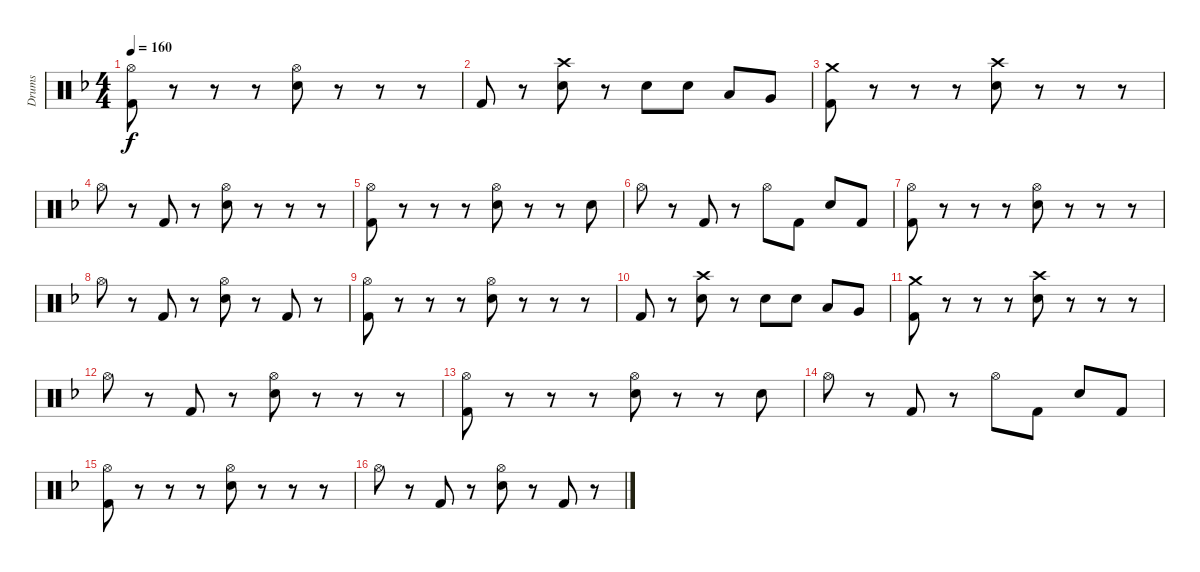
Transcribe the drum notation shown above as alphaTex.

\track ("Drums" "Drums") {instrument percussion}
\staff {score}
\articulation defaults
\ts (4 4)
\tempo 160
\clef neutral
\ks dminor
("Hi-Hat (open)" "Kick (hit) 2").8{dy f} r.8 r.8 r.8 ("Hi-Hat (open)" "Electric Snare (hit)").8 r.8 r.8 r.8 |
"Kick (hit) 2".8 r.8 ("Crash high (hit)" "Electric Snare (hit)").8 r.8 "Electric Snare (hit)".8 "Electric Snare (hit)".8 "Low Tom (hit)".8 "Very Low Tom (hit)".8 |
("Crash medium (hit)" "Kick (hit) 2").8 r.8 r.8 r.8 ("Crash high (hit)" "Electric Snare (hit)").8 r.8 r.8 r.8 |
"Hi-Hat (open)".8 r.8 "Kick (hit) 2".8 r.8 ("Hi-Hat (open)" "Electric Snare (hit)").8 r.8 r.8 r.8 |
("Hi-Hat (open)" "Kick (hit) 2").8 r.8 r.8 r.8 ("Hi-Hat (open)" "Electric Snare (hit)").8 r.8 r.8 "Electric Snare (hit)".8 |
"Hi-Hat (open)".8 r.8 "Kick (hit) 2".8 r.8 "Hi-Hat (open)".8 "Kick (hit) 2".8 "Electric Snare (hit)".8 "Kick (hit) 2".8 |
("Hi-Hat (open)" "Kick (hit) 2").8 r.8 r.8 r.8 ("Hi-Hat (open)" "Electric Snare (hit)").8 r.8 r.8 r.8 |
"Hi-Hat (open)".8 r.8 "Kick (hit) 2".8 r.8 ("Hi-Hat (open)" "Electric Snare (hit)").8 r.8 "Kick (hit) 2".8 r.8 |
("Hi-Hat (open)" "Kick (hit) 2").8 r.8 r.8 r.8 ("Hi-Hat (open)" "Electric Snare (hit)").8 r.8 r.8 r.8 |
"Kick (hit) 2".8 r.8 ("Crash high (hit)" "Electric Snare (hit)").8 r.8 "Electric Snare (hit)".8 "Electric Snare (hit)".8 "Low Tom (hit)".8 "Very Low Tom (hit)".8 |
("Crash medium (hit)" "Kick (hit) 2").8 r.8 r.8 r.8 ("Crash high (hit)" "Electric Snare (hit)").8 r.8 r.8 r.8 |
"Hi-Hat (open)".8 r.8 "Kick (hit) 2".8 r.8 ("Hi-Hat (open)" "Electric Snare (hit)").8 r.8 r.8 r.8 |
("Hi-Hat (open)" "Kick (hit) 2").8 r.8 r.8 r.8 ("Hi-Hat (open)" "Electric Snare (hit)").8 r.8 r.8 "Electric Snare (hit)".8 |
"Hi-Hat (open)".8 r.8 "Kick (hit) 2".8 r.8 "Hi-Hat (open)".8 "Kick (hit) 2".8 "Electric Snare (hit)".8 "Kick (hit) 2".8 |
("Hi-Hat (open)" "Kick (hit) 2").8 r.8 r.8 r.8 ("Hi-Hat (open)" "Electric Snare (hit)").8 r.8 r.8 r.8 |
"Hi-Hat (open)".8 r.8 "Kick (hit) 2".8 r.8 ("Hi-Hat (open)" "Electric Snare (hit)").8 r.8 "Kick (hit) 2".8 r.8
